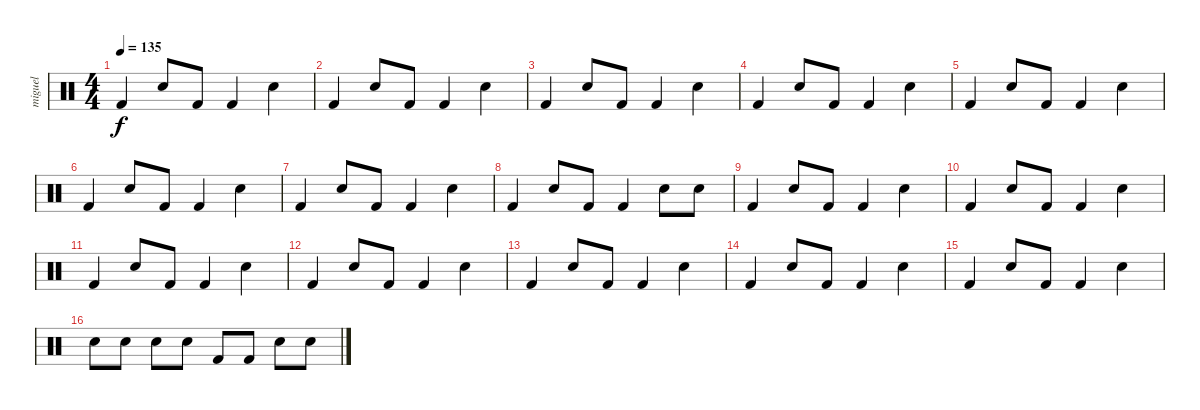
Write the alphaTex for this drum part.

\track ("miguel" "miguel") {instrument percussion}
\staff {score}
\articulation defaults
\ts (4 4)
\tempo 135
\clef neutral
\ks c "Kick (hit) 2".4{dy f} "Snare (hit) 2".8 "Kick (hit) 2".8 "Kick (hit) 2".4 "Snare (hit) 2".4
|
"Kick (hit) 2".4 "Snare (hit) 2".8 "Kick (hit) 2".8 "Kick (hit) 2".4 "Snare (hit) 2".4 |
"Kick (hit) 2".4 "Snare (hit) 2".8 "Kick (hit) 2".8 "Kick (hit) 2".4 "Snare (hit) 2".4 |
"Kick (hit) 2".4 "Snare (hit) 2".8 "Kick (hit) 2".8 "Kick (hit) 2".4 "Snare (hit) 2".4 |
"Kick (hit) 2".4 "Snare (hit) 2".8 "Kick (hit) 2".8 "Kick (hit) 2".4 "Snare (hit) 2".4 |
"Kick (hit) 2".4 "Snare (hit) 2".8 "Kick (hit) 2".8 "Kick (hit) 2".4 "Snare (hit) 2".4 |
"Kick (hit) 2".4 "Snare (hit) 2".8 "Kick (hit) 2".8 "Kick (hit) 2".4 "Snare (hit) 2".4 |
"Kick (hit) 2".4 "Snare (hit) 2".8 "Kick (hit) 2".8 "Kick (hit) 2".4 "Snare (hit) 2".8 "Snare (hit) 2".8 |
"Kick (hit) 2".4 "Snare (hit) 2".8 "Kick (hit) 2".8 "Kick (hit) 2".4 "Snare (hit) 2".4 |
"Kick (hit) 2".4 "Snare (hit) 2".8 "Kick (hit) 2".8 "Kick (hit) 2".4 "Snare (hit) 2".4 |
"Kick (hit) 2".4 "Snare (hit) 2".8 "Kick (hit) 2".8 "Kick (hit) 2".4 "Snare (hit) 2".4 |
"Kick (hit) 2".4 "Snare (hit) 2".8 "Kick (hit) 2".8 "Kick (hit) 2".4 "Snare (hit) 2".4 |
"Kick (hit) 2".4 "Snare (hit) 2".8 "Kick (hit) 2".8 "Kick (hit) 2".4 "Snare (hit) 2".4 |
"Kick (hit) 2".4 "Snare (hit) 2".8 "Kick (hit) 2".8 "Kick (hit) 2".4 "Snare (hit) 2".4 |
"Kick (hit) 2".4 "Snare (hit) 2".8 "Kick (hit) 2".8 "Kick (hit) 2".4 "Snare (hit) 2".4 |
"Snare (hit) 2".8 "Snare (hit) 2".8 "Snare (hit) 2".8 "Snare (hit) 2".8 "Kick (hit) 2".8 "Kick (hit) 2".8 "Snare (hit) 2".8 "Snare (hit) 2".8
